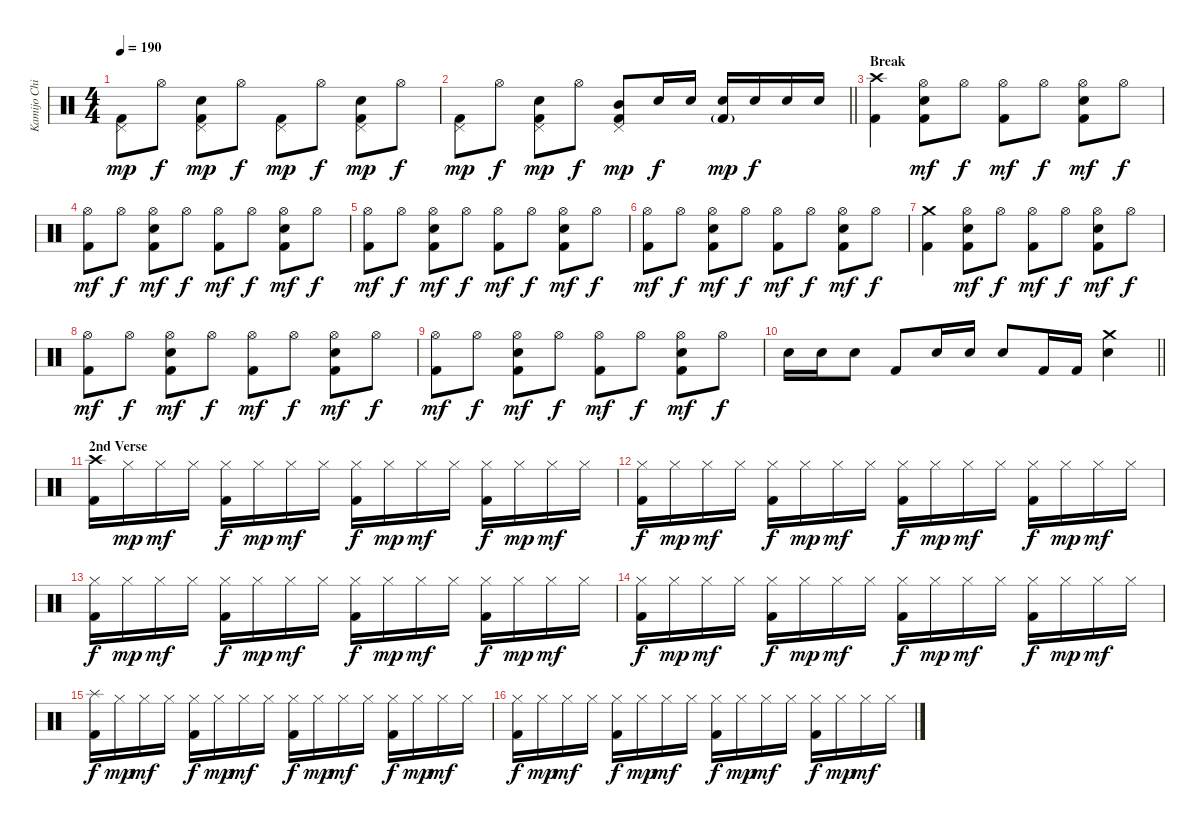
\track ("Kamijo Chihiro" "Kamijo Chi") {instrument percussion}
\staff {score}
\articulation defaults
\ts (4 4)
\tempo 190
\clef neutral
\ks c
("Pedal Hi-Hat (hit)" "Kick (hit) 2").8{dy mp} "Hi-Hat (open)".8{dy f} ("Pedal Hi-Hat (hit)" "Snare (hit) 2" "Kick (hit) 2").8{dy mp} "Hi-Hat (open)".8{dy f} ("Pedal Hi-Hat (hit)" "Kick (hit) 2").8{dy mp} "Hi-Hat (open)".8{dy f} ("Pedal Hi-Hat (hit)" "Snare (hit) 2" "Kick (hit) 2").8{dy mp} "Hi-Hat (open)".8{dy f} |
\barLineRight lightlight
("Pedal Hi-Hat (hit)" "Kick (hit) 2").8{dy mp} "Hi-Hat (open)".8{dy f} ("Pedal Hi-Hat (hit)" "Snare (hit) 2" "Kick (hit) 2").8{dy mp} "Hi-Hat (open)".8{dy f} ("Pedal Hi-Hat (hit)" "Mid Tom (hit)" "Kick (hit) 2").8{dy mp} "Snare (hit) 2".16{dy f} "Snare (hit) 2".16 ("Snare (hit) 2" "Kick (hit) 2"{g}).16{dy mp} "Snare (hit) 2".16{dy f} "Snare (hit) 2".16 "Snare (hit) 2".16 |
\section ("" "Break")
("Crash high (hit)" "Kick (hit) 2").4 ("Hi-Hat (open)" "Snare (hit) 2" "Kick (hit) 2").8{dy mf} "Hi-Hat (open)".8{dy f} ("Hi-Hat (open)" "Kick (hit) 2").8{dy mf} "Hi-Hat (open)".8{dy f} ("Hi-Hat (open)" "Snare (hit) 2" "Kick (hit) 2").8{dy mf} "Hi-Hat (open)".8{dy f} |
("Hi-Hat (open)" "Kick (hit) 2").8{dy mf} "Hi-Hat (open)".8{dy f} ("Hi-Hat (open)" "Snare (hit) 2" "Kick (hit) 2").8{dy mf} "Hi-Hat (open)".8{dy f} ("Hi-Hat (open)" "Kick (hit) 2").8{dy mf} "Hi-Hat (open)".8{dy f} ("Hi-Hat (open)" "Snare (hit) 2" "Kick (hit) 2").8{dy mf} "Hi-Hat (open)".8{dy f} |
("Hi-Hat (open)" "Kick (hit) 2").8{dy mf} "Hi-Hat (open)".8{dy f} ("Hi-Hat (open)" "Snare (hit) 2" "Kick (hit) 2").8{dy mf} "Hi-Hat (open)".8{dy f} ("Hi-Hat (open)" "Kick (hit) 2").8{dy mf} "Hi-Hat (open)".8{dy f} ("Hi-Hat (open)" "Snare (hit) 2" "Kick (hit) 2").8{dy mf} "Hi-Hat (open)".8{dy f} |
("Hi-Hat (open)" "Kick (hit) 2").8{dy mf} "Hi-Hat (open)".8{dy f} ("Hi-Hat (open)" "Snare (hit) 2" "Kick (hit) 2").8{dy mf} "Hi-Hat (open)".8{dy f} ("Hi-Hat (open)" "Kick (hit) 2").8{dy mf} "Hi-Hat (open)".8{dy f} ("Hi-Hat (open)" "Snare (hit) 2" "Kick (hit) 2").8{dy mf} "Hi-Hat (open)".8{dy f} |
("Crash medium (hit)" "Kick (hit) 2").4 ("Hi-Hat (open)" "Snare (hit) 2" "Kick (hit) 2").8{dy mf} "Hi-Hat (open)".8{dy f} ("Hi-Hat (open)" "Kick (hit) 2").8{dy mf} "Hi-Hat (open)".8{dy f} ("Hi-Hat (open)" "Snare (hit) 2" "Kick (hit) 2").8{dy mf} "Hi-Hat (open)".8{dy f} |
("Hi-Hat (open)" "Kick (hit) 2").8{dy mf} "Hi-Hat (open)".8{dy f} ("Hi-Hat (open)" "Snare (hit) 2" "Kick (hit) 2").8{dy mf} "Hi-Hat (open)".8{dy f} ("Hi-Hat (open)" "Kick (hit) 2").8{dy mf} "Hi-Hat (open)".8{dy f} ("Hi-Hat (open)" "Snare (hit) 2" "Kick (hit) 2").8{dy mf} "Hi-Hat (open)".8{dy f} |
("Hi-Hat (open)" "Kick (hit) 2").8{dy mf} "Hi-Hat (open)".8{dy f} ("Hi-Hat (open)" "Snare (hit) 2" "Kick (hit) 2").8{dy mf} "Hi-Hat (open)".8{dy f} ("Hi-Hat (open)" "Kick (hit) 2").8{dy mf} "Hi-Hat (open)".8{dy f} ("Hi-Hat (open)" "Snare (hit) 2" "Kick (hit) 2").8{dy mf} "Hi-Hat (open)".8{dy f} |
\barLineRight lightlight "Snare (hit) 2".16 "Snare (hit) 2".16 "Snare (hit) 2".8 "Kick (hit) 2".8 "Snare (hit) 2".16 "Snare (hit) 2".16 "Snare (hit) 2".8 "Kick (hit) 2".16 "Kick (hit) 2".16
("Crash medium (hit)" "Snare (hit) 2").4 |
\section ("" "2nd Verse")
("Crash high (hit)" "Kick (hit) 2").16 "Hi-Hat (closed)".16{dy mp} "Hi-Hat (closed)".16{dy mf} "Hi-Hat (closed)".16 ("Hi-Hat (closed)" "Kick (hit) 2").16{dy f} "Hi-Hat (closed)".16{dy mp} "Hi-Hat (closed)".16{dy mf} "Hi-Hat (closed)".16 ("Hi-Hat (closed)" "Kick (hit) 2").16{dy f} "Hi-Hat (closed)".16{dy mp} "Hi-Hat (closed)".16{dy mf} "Hi-Hat (closed)".16 ("Hi-Hat (closed)" "Kick (hit) 2").16{dy f} "Hi-Hat (closed)".16{dy mp} "Hi-Hat (closed)".16{dy mf} "Hi-Hat (closed)".16 |
("Hi-Hat (closed)" "Kick (hit) 2").16{dy f} "Hi-Hat (closed)".16{dy mp} "Hi-Hat (closed)".16{dy mf} "Hi-Hat (closed)".16 ("Hi-Hat (closed)" "Kick (hit) 2").16{dy f} "Hi-Hat (closed)".16{dy mp} "Hi-Hat (closed)".16{dy mf} "Hi-Hat (closed)".16 ("Hi-Hat (closed)" "Kick (hit) 2").16{dy f} "Hi-Hat (closed)".16{dy mp} "Hi-Hat (closed)".16{dy mf} "Hi-Hat (closed)".16 ("Hi-Hat (closed)" "Kick (hit) 2").16{dy f} "Hi-Hat (closed)".16{dy mp} "Hi-Hat (closed)".16{dy mf} "Hi-Hat (closed)".16 |
("Hi-Hat (closed)" "Kick (hit) 2").16{dy f} "Hi-Hat (closed)".16{dy mp} "Hi-Hat (closed)".16{dy mf} "Hi-Hat (closed)".16 ("Hi-Hat (closed)" "Kick (hit) 2").16{dy f} "Hi-Hat (closed)".16{dy mp} "Hi-Hat (closed)".16{dy mf} "Hi-Hat (closed)".16 ("Hi-Hat (closed)" "Kick (hit) 2").16{dy f} "Hi-Hat (closed)".16{dy mp} "Hi-Hat (closed)".16{dy mf} "Hi-Hat (closed)".16 ("Hi-Hat (closed)" "Kick (hit) 2").16{dy f} "Hi-Hat (closed)".16{dy mp} "Hi-Hat (closed)".16{dy mf} "Hi-Hat (closed)".16 |
("Hi-Hat (closed)" "Kick (hit) 2").16{dy f} "Hi-Hat (closed)".16{dy mp} "Hi-Hat (closed)".16{dy mf} "Hi-Hat (closed)".16 ("Hi-Hat (closed)" "Kick (hit) 2").16{dy f} "Hi-Hat (closed)".16{dy mp} "Hi-Hat (closed)".16{dy mf} "Hi-Hat (closed)".16 ("Hi-Hat (closed)" "Kick (hit) 2").16{dy f} "Hi-Hat (closed)".16{dy mp} "Hi-Hat (closed)".16{dy mf} "Hi-Hat (closed)".16 ("Hi-Hat (closed)" "Kick (hit) 2").16{dy f} "Hi-Hat (closed)".16{dy mp} "Hi-Hat (closed)".16{dy mf} "Hi-Hat (closed)".16 |
("Splash (hit)" "Kick (hit) 2").16{dy f} "Hi-Hat (closed)".16{dy mp} "Hi-Hat (closed)".16{dy mf} "Hi-Hat (closed)".16 ("Hi-Hat (closed)" "Kick (hit) 2").16{dy f} "Hi-Hat (closed)".16{dy mp} "Hi-Hat (closed)".16{dy mf} "Hi-Hat (closed)".16 ("Hi-Hat (closed)" "Kick (hit) 2").16{dy f} "Hi-Hat (closed)".16{dy mp} "Hi-Hat (closed)".16{dy mf} "Hi-Hat (closed)".16 ("Hi-Hat (closed)" "Kick (hit) 2").16{dy f} "Hi-Hat (closed)".16{dy mp} "Hi-Hat (closed)".16{dy mf} "Hi-Hat (closed)".16 |
("Hi-Hat (closed)" "Kick (hit) 2").16{dy f} "Hi-Hat (closed)".16{dy mp} "Hi-Hat (closed)".16{dy mf} "Hi-Hat (closed)".16 ("Hi-Hat (closed)" "Kick (hit) 2").16{dy f} "Hi-Hat (closed)".16{dy mp} "Hi-Hat (closed)".16{dy mf} "Hi-Hat (closed)".16 ("Hi-Hat (closed)" "Kick (hit) 2").16{dy f} "Hi-Hat (closed)".16{dy mp} "Hi-Hat (closed)".16{dy mf} "Hi-Hat (closed)".16 ("Hi-Hat (closed)" "Kick (hit) 2").16{dy f} "Hi-Hat (closed)".16{dy mp} "Hi-Hat (closed)".16{dy mf} "Hi-Hat (closed)".16
